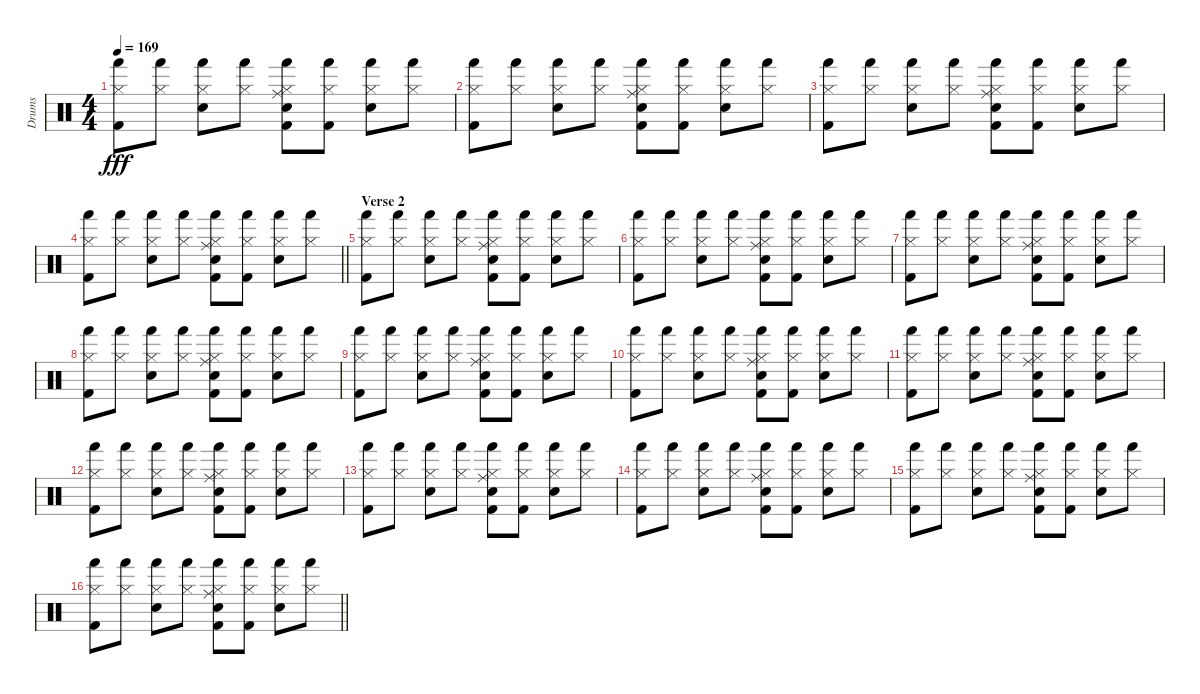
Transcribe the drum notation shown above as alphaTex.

\track ("Drums" "Drums") {instrument percussion}
\staff {score}
\articulation defaults
\ts (4 4)
\tempo 169
\clef neutral
\ks c
("Kick (hit) 2" "Hand (hit)" "Hi-Hat (closed)").8{dy fff} ("Hand (hit)" "Hi-Hat (closed)").8 ("Snare (hit) 2" "Hand (hit)" "Hi-Hat (closed)").8 ("Hand (hit)" "Hi-Hat (closed)").8 ("Kick (hit) 2" "Hand (hit)" "Electric Snare (hit)" "Ride (middle)" "Hi-Hat (closed)").8 ("Kick (hit) 2" "Hand (hit)" "Hi-Hat (closed)").8 ("Snare (hit) 2" "Hand (hit)" "Hi-Hat (closed)").8 ("Hand (hit)" "Hi-Hat (closed)").8 |
("Kick (hit) 2" "Hand (hit)" "Hi-Hat (closed)").8 ("Hand (hit)" "Hi-Hat (closed)").8 ("Snare (hit) 2" "Hand (hit)" "Hi-Hat (closed)").8 ("Hand (hit)" "Hi-Hat (closed)").8 ("Kick (hit) 2" "Hand (hit)" "Ride (middle)" "Electric Snare (hit)" "Hi-Hat (closed)").8 ("Kick (hit) 2" "Hand (hit)" "Hi-Hat (closed)").8 ("Snare (hit) 2" "Hand (hit)" "Hi-Hat (closed)").8 ("Hand (hit)" "Hi-Hat (closed)").8 |
("Kick (hit) 2" "Hand (hit)" "Hi-Hat (closed)").8 ("Hand (hit)" "Hi-Hat (closed)").8 ("Snare (hit) 2" "Hand (hit)" "Hi-Hat (closed)").8 ("Hand (hit)" "Hi-Hat (closed)").8 ("Kick (hit) 2" "Hand (hit)" "Electric Snare (hit)" "Ride (middle)" "Hi-Hat (closed)").8 ("Kick (hit) 2" "Hand (hit)" "Hi-Hat (closed)").8 ("Snare (hit) 2" "Hand (hit)" "Hi-Hat (closed)").8 ("Hand (hit)" "Hi-Hat (closed)").8 |
\barLineRight lightlight
("Kick (hit) 2" "Hand (hit)" "Hi-Hat (closed)").8 ("Hand (hit)" "Hi-Hat (closed)").8 ("Snare (hit) 2" "Hand (hit)" "Hi-Hat (closed)").8 ("Hand (hit)" "Hi-Hat (closed)").8 ("Kick (hit) 2" "Hand (hit)" "Ride (middle)" "Electric Snare (hit)" "Hi-Hat (closed)").8 ("Kick (hit) 2" "Hand (hit)" "Hi-Hat (closed)").8 ("Snare (hit) 2" "Hand (hit)" "Hi-Hat (closed)").8 ("Hand (hit)" "Hi-Hat (closed)").8 |
\section ("" "Verse 2")
("Kick (hit) 2" "Hand (hit)" "Hi-Hat (closed)").8 ("Hand (hit)" "Hi-Hat (closed)").8 ("Snare (hit) 2" "Hand (hit)" "Hi-Hat (closed)").8 ("Hand (hit)" "Hi-Hat (closed)").8 ("Kick (hit) 2" "Hand (hit)" "Electric Snare (hit)" "Ride (middle)" "Hi-Hat (closed)").8 ("Kick (hit) 2" "Hand (hit)" "Hi-Hat (closed)").8 ("Snare (hit) 2" "Hand (hit)" "Hi-Hat (closed)").8 ("Hand (hit)" "Hi-Hat (closed)").8 |
("Kick (hit) 2" "Hand (hit)" "Hi-Hat (closed)").8 ("Hand (hit)" "Hi-Hat (closed)").8 ("Snare (hit) 2" "Hand (hit)" "Hi-Hat (closed)").8 ("Hand (hit)" "Hi-Hat (closed)").8 ("Kick (hit) 2" "Hand (hit)" "Ride (middle)" "Electric Snare (hit)" "Hi-Hat (closed)").8 ("Kick (hit) 2" "Hand (hit)" "Hi-Hat (closed)").8 ("Snare (hit) 2" "Hand (hit)" "Hi-Hat (closed)").8 ("Hand (hit)" "Hi-Hat (closed)").8 |
("Kick (hit) 2" "Hand (hit)" "Hi-Hat (closed)").8 ("Hand (hit)" "Hi-Hat (closed)").8 ("Snare (hit) 2" "Hand (hit)" "Hi-Hat (closed)").8 ("Hand (hit)" "Hi-Hat (closed)").8 ("Kick (hit) 2" "Hand (hit)" "Electric Snare (hit)" "Ride (middle)" "Hi-Hat (closed)").8 ("Kick (hit) 2" "Hand (hit)" "Hi-Hat (closed)").8 ("Snare (hit) 2" "Hand (hit)" "Hi-Hat (closed)").8 ("Hand (hit)" "Hi-Hat (closed)").8 |
("Kick (hit) 2" "Hand (hit)" "Hi-Hat (closed)").8 ("Hand (hit)" "Hi-Hat (closed)").8 ("Snare (hit) 2" "Hand (hit)" "Hi-Hat (closed)").8 ("Hand (hit)" "Hi-Hat (closed)").8 ("Kick (hit) 2" "Hand (hit)" "Ride (middle)" "Electric Snare (hit)" "Hi-Hat (closed)").8 ("Kick (hit) 2" "Hand (hit)" "Hi-Hat (closed)").8 ("Snare (hit) 2" "Hand (hit)" "Hi-Hat (closed)").8 ("Hand (hit)" "Hi-Hat (closed)").8 |
("Kick (hit) 2" "Hand (hit)" "Hi-Hat (closed)").8 ("Hand (hit)" "Hi-Hat (closed)").8 ("Snare (hit) 2" "Hand (hit)" "Hi-Hat (closed)").8 ("Hand (hit)" "Hi-Hat (closed)").8 ("Kick (hit) 2" "Hand (hit)" "Electric Snare (hit)" "Ride (middle)" "Hi-Hat (closed)").8 ("Kick (hit) 2" "Hand (hit)" "Hi-Hat (closed)").8 ("Snare (hit) 2" "Hand (hit)" "Hi-Hat (closed)").8 ("Hand (hit)" "Hi-Hat (closed)").8 |
("Kick (hit) 2" "Hand (hit)" "Hi-Hat (closed)").8 ("Hand (hit)" "Hi-Hat (closed)").8 ("Snare (hit) 2" "Hand (hit)" "Hi-Hat (closed)").8 ("Hand (hit)" "Hi-Hat (closed)").8 ("Kick (hit) 2" "Hand (hit)" "Ride (middle)" "Electric Snare (hit)" "Hi-Hat (closed)").8 ("Kick (hit) 2" "Hand (hit)" "Hi-Hat (closed)").8 ("Snare (hit) 2" "Hand (hit)" "Hi-Hat (closed)").8 ("Hand (hit)" "Hi-Hat (closed)").8 |
("Kick (hit) 2" "Hand (hit)" "Hi-Hat (closed)").8 ("Hand (hit)" "Hi-Hat (closed)").8 ("Snare (hit) 2" "Hand (hit)" "Hi-Hat (closed)").8 ("Hand (hit)" "Hi-Hat (closed)").8 ("Kick (hit) 2" "Hand (hit)" "Electric Snare (hit)" "Ride (middle)" "Hi-Hat (closed)").8 ("Kick (hit) 2" "Hand (hit)" "Hi-Hat (closed)").8 ("Snare (hit) 2" "Hand (hit)" "Hi-Hat (closed)").8 ("Hand (hit)" "Hi-Hat (closed)").8 |
("Kick (hit) 2" "Hand (hit)" "Hi-Hat (closed)").8 ("Hand (hit)" "Hi-Hat (closed)").8 ("Snare (hit) 2" "Hand (hit)" "Hi-Hat (closed)").8 ("Hand (hit)" "Hi-Hat (closed)").8 ("Kick (hit) 2" "Hand (hit)" "Ride (middle)" "Electric Snare (hit)" "Hi-Hat (closed)").8 ("Kick (hit) 2" "Hand (hit)" "Hi-Hat (closed)").8 ("Snare (hit) 2" "Hand (hit)" "Hi-Hat (closed)").8 ("Hand (hit)" "Hi-Hat (closed)").8 |
("Kick (hit) 2" "Hand (hit)" "Hi-Hat (closed)").8 ("Hand (hit)" "Hi-Hat (closed)").8 ("Snare (hit) 2" "Hand (hit)" "Hi-Hat (closed)").8 ("Hand (hit)" "Hi-Hat (closed)").8 ("Kick (hit) 2" "Hand (hit)" "Electric Snare (hit)" "Ride (middle)" "Hi-Hat (closed)").8 ("Kick (hit) 2" "Hand (hit)" "Hi-Hat (closed)").8 ("Snare (hit) 2" "Hand (hit)" "Hi-Hat (closed)").8 ("Hand (hit)" "Hi-Hat (closed)").8 |
("Kick (hit) 2" "Hand (hit)" "Hi-Hat (closed)").8 ("Hand (hit)" "Hi-Hat (closed)").8 ("Snare (hit) 2" "Hand (hit)" "Hi-Hat (closed)").8 ("Hand (hit)" "Hi-Hat (closed)").8 ("Kick (hit) 2" "Hand (hit)" "Ride (middle)" "Electric Snare (hit)" "Hi-Hat (closed)").8 ("Kick (hit) 2" "Hand (hit)" "Hi-Hat (closed)").8 ("Snare (hit) 2" "Hand (hit)" "Hi-Hat (closed)").8 ("Hand (hit)" "Hi-Hat (closed)").8 |
("Kick (hit) 2" "Hand (hit)" "Hi-Hat (closed)").8 ("Hand (hit)" "Hi-Hat (closed)").8 ("Snare (hit) 2" "Hand (hit)" "Hi-Hat (closed)").8 ("Hand (hit)" "Hi-Hat (closed)").8 ("Kick (hit) 2" "Hand (hit)" "Electric Snare (hit)" "Ride (middle)" "Hi-Hat (closed)").8 ("Kick (hit) 2" "Hand (hit)" "Hi-Hat (closed)").8 ("Snare (hit) 2" "Hand (hit)" "Hi-Hat (closed)").8 ("Hand (hit)" "Hi-Hat (closed)").8 |
\barLineRight lightlight
("Kick (hit) 2" "Hand (hit)" "Hi-Hat (closed)").8 ("Hand (hit)" "Hi-Hat (closed)").8 ("Snare (hit) 2" "Hand (hit)" "Hi-Hat (closed)").8 ("Hand (hit)" "Hi-Hat (closed)").8 ("Kick (hit) 2" "Hand (hit)" "Ride (middle)" "Electric Snare (hit)" "Hi-Hat (closed)").8 ("Kick (hit) 2" "Hand (hit)" "Hi-Hat (closed)").8 ("Snare (hit) 2" "Hand (hit)" "Hi-Hat (closed)").8 ("Hand (hit)" "Hi-Hat (closed)").8
